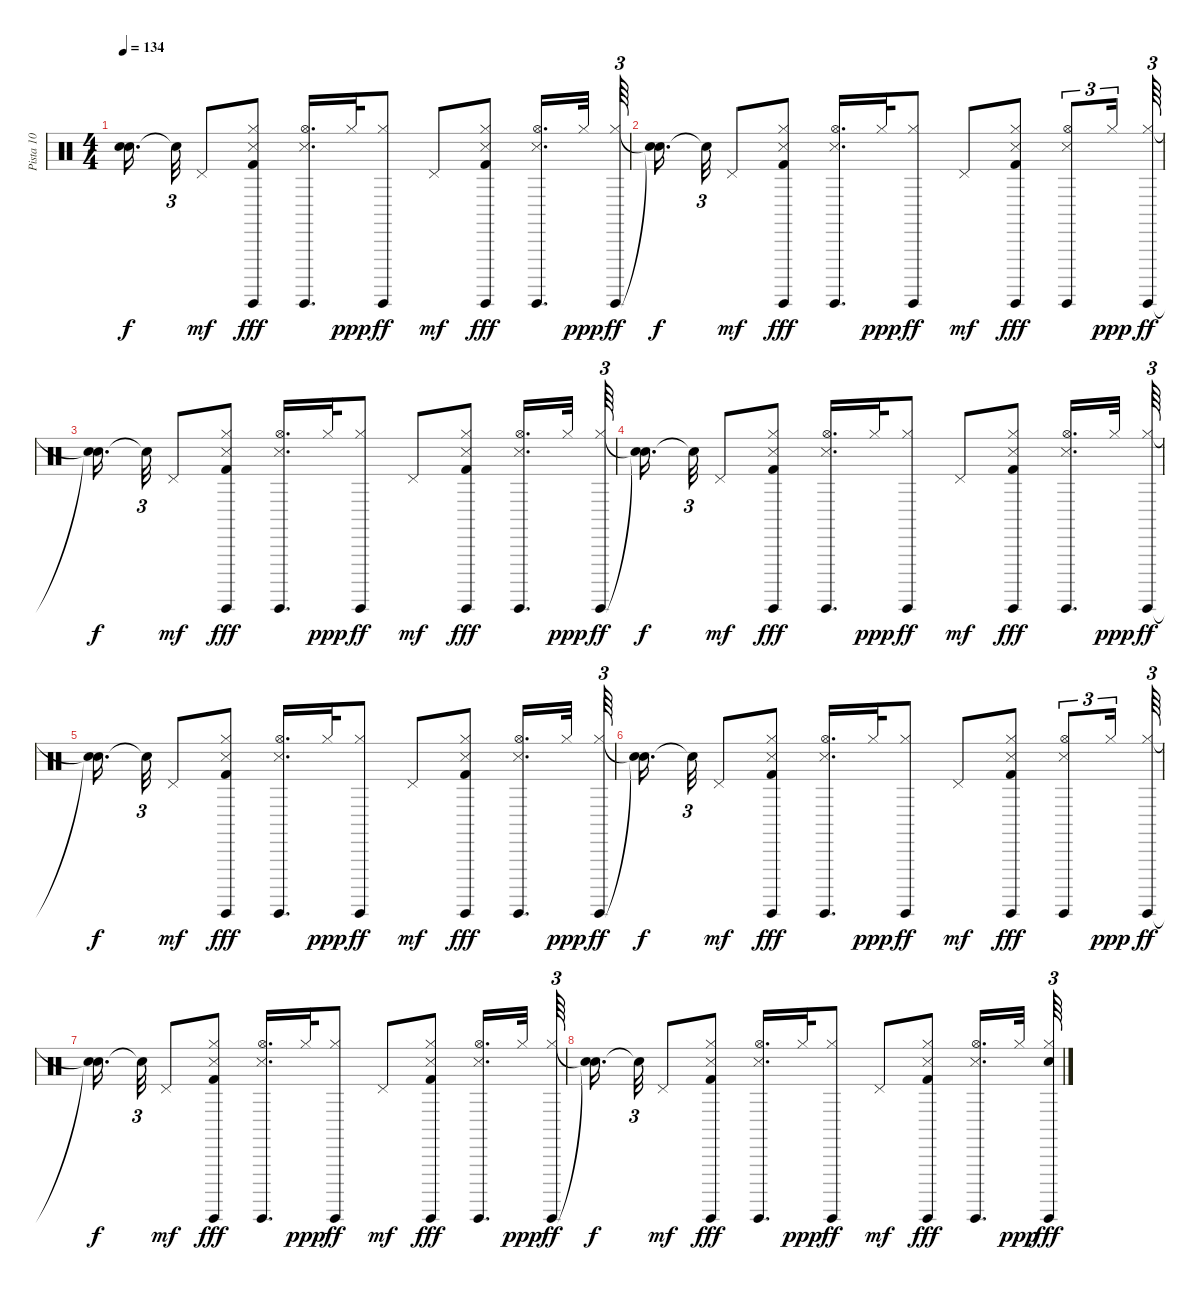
\track ("Pista 10" "Pista 10") {instrument percussion}
\staff {score}
\articulation defaults
\ts (4 4)
\tempo 134
\clef neutral
\ks c
("Snare (hit)"{t} "Snare (hit)"{t}).16{d dy f beam splitsecondary} "Snare (hit)"{t}.32{tu (3 2)} "Pedal Hi-Hat (hit)".8{dy mf} ("Guiro (hit)" "Hi-Hat (closed)" "Kick (hit) 2" "Snare (side stick) 3").8{dy fff} ("Guiro (hit)" "Hi-Hat (open)" "Snare (side stick) 3").16{d} "Hi-Hat (closed)".32{dy ppp} ("Guiro (hit)" "Hi-Hat (closed)").8{dy ff} "Pedal Hi-Hat (hit)".8{dy mf} ("Guiro (hit)" "Hi-Hat (closed)" "Kick (hit) 2" "Snare (side stick) 3").8{dy fff} ("Guiro (hit)" "Hi-Hat (open)" "Snare (side stick) 3").16{d} "Hi-Hat (closed)".32{dy ppp} ("Guiro (hit)" "Hi-Hat (closed)").64{tu (3 2) dy ff} |
("Snare (hit)"{t} "Snare (hit)"{t}).16{d dy f beam splitsecondary} "Snare (hit)"{t}.32{tu (3 2)} "Pedal Hi-Hat (hit)".8{dy mf} ("Guiro (hit)" "Hi-Hat (closed)" "Kick (hit) 2" "Snare (side stick) 3").8{dy fff} ("Guiro (hit)" "Hi-Hat (open)" "Snare (side stick) 3").16{d} "Hi-Hat (closed)".32{dy ppp} ("Guiro (hit)" "Hi-Hat (closed)").8{dy ff} "Pedal Hi-Hat (hit)".8{dy mf} ("Guiro (hit)" "Hi-Hat (closed)" "Kick (hit) 2" "Snare (side stick) 3").8{dy fff} ("Guiro (hit)" "Hi-Hat (open)" "Snare (side stick) 3").8{tu (3 2)} "Hi-Hat (closed)".16{tu (3 2) dy ppp} ("Guiro (hit)" "Hi-Hat (closed)").64{tu (3 2) dy ff} |
("Snare (hit)"{t} "Snare (hit)"{t}).16{d dy f beam splitsecondary} "Snare (hit)"{t}.32{tu (3 2)} "Pedal Hi-Hat (hit)".8{dy mf} ("Guiro (hit)" "Hi-Hat (closed)" "Kick (hit) 2" "Snare (side stick) 3").8{dy fff} ("Guiro (hit)" "Hi-Hat (open)" "Snare (side stick) 3").16{d} "Hi-Hat (closed)".32{dy ppp} ("Guiro (hit)" "Hi-Hat (closed)").8{dy ff} "Pedal Hi-Hat (hit)".8{dy mf} ("Guiro (hit)" "Hi-Hat (closed)" "Kick (hit) 2" "Snare (side stick) 3").8{dy fff} ("Guiro (hit)" "Hi-Hat (open)" "Snare (side stick) 3").16{d} "Hi-Hat (closed)".32{dy ppp} ("Guiro (hit)" "Hi-Hat (closed)").64{tu (3 2) dy ff} |
("Snare (hit)"{t} "Snare (hit)"{t}).16{d dy f beam splitsecondary} "Snare (hit)"{t}.32{tu (3 2)} "Pedal Hi-Hat (hit)".8{dy mf} ("Guiro (hit)" "Hi-Hat (closed)" "Kick (hit) 2" "Snare (side stick) 3").8{dy fff} ("Guiro (hit)" "Hi-Hat (open)" "Snare (side stick) 3").16{d} "Hi-Hat (closed)".32{dy ppp} ("Guiro (hit)" "Hi-Hat (closed)").8{dy ff} "Pedal Hi-Hat (hit)".8{dy mf} ("Guiro (hit)" "Hi-Hat (closed)" "Kick (hit) 2" "Snare (side stick) 3").8{dy fff} ("Guiro (hit)" "Hi-Hat (open)" "Snare (side stick) 3").16{d} "Hi-Hat (closed)".32{dy ppp} ("Guiro (hit)" "Hi-Hat (closed)").64{tu (3 2) dy ff} |
("Snare (hit)"{t} "Snare (hit)"{t}).16{d dy f beam splitsecondary} "Snare (hit)"{t}.32{tu (3 2)} "Pedal Hi-Hat (hit)".8{dy mf} ("Guiro (hit)" "Hi-Hat (closed)" "Kick (hit) 2" "Snare (side stick) 3").8{dy fff} ("Guiro (hit)" "Hi-Hat (open)" "Snare (side stick) 3").16{d} "Hi-Hat (closed)".32{dy ppp} ("Guiro (hit)" "Hi-Hat (closed)").8{dy ff} "Pedal Hi-Hat (hit)".8{dy mf} ("Guiro (hit)" "Hi-Hat (closed)" "Kick (hit) 2" "Snare (side stick) 3").8{dy fff} ("Guiro (hit)" "Hi-Hat (open)" "Snare (side stick) 3").16{d} "Hi-Hat (closed)".32{dy ppp} ("Guiro (hit)" "Hi-Hat (closed)").64{tu (3 2) dy ff} |
("Snare (hit)"{t} "Snare (hit)"{t}).16{d dy f beam splitsecondary} "Snare (hit)"{t}.32{tu (3 2)} "Pedal Hi-Hat (hit)".8{dy mf} ("Guiro (hit)" "Hi-Hat (closed)" "Kick (hit) 2" "Snare (side stick) 3").8{dy fff} ("Guiro (hit)" "Hi-Hat (open)" "Snare (side stick) 3").16{d} "Hi-Hat (closed)".32{dy ppp} ("Guiro (hit)" "Hi-Hat (closed)").8{dy ff} "Pedal Hi-Hat (hit)".8{dy mf} ("Guiro (hit)" "Hi-Hat (closed)" "Kick (hit) 2" "Snare (side stick) 3").8{dy fff} ("Guiro (hit)" "Hi-Hat (open)" "Snare (side stick) 3").8{tu (3 2)} "Hi-Hat (closed)".16{tu (3 2) dy ppp} ("Guiro (hit)" "Hi-Hat (closed)").64{tu (3 2) dy ff} |
("Snare (hit)"{t} "Snare (hit)"{t}).16{d dy f beam splitsecondary} "Snare (hit)"{t}.32{tu (3 2)} "Pedal Hi-Hat (hit)".8{dy mf} ("Guiro (hit)" "Hi-Hat (closed)" "Kick (hit) 2" "Snare (side stick) 3").8{dy fff} ("Guiro (hit)" "Hi-Hat (open)" "Snare (side stick) 3").16{d} "Hi-Hat (closed)".32{dy ppp} ("Guiro (hit)" "Hi-Hat (closed)").8{dy ff} "Pedal Hi-Hat (hit)".8{dy mf} ("Guiro (hit)" "Hi-Hat (closed)" "Kick (hit) 2" "Snare (side stick) 3").8{dy fff} ("Guiro (hit)" "Hi-Hat (open)" "Snare (side stick) 3").16{d} "Hi-Hat (closed)".32{dy ppp} ("Guiro (hit)" "Hi-Hat (closed)").64{tu (3 2) dy ff} |
("Snare (hit)"{t} "Snare (hit)"{t}).16{d dy f beam splitsecondary} "Snare (hit)"{t}.32{tu (3 2)} "Pedal Hi-Hat (hit)".8{dy mf} ("Guiro (hit)" "Hi-Hat (closed)" "Kick (hit) 2" "Snare (side stick) 3").8{dy fff} ("Guiro (hit)" "Hi-Hat (open)" "Snare (side stick) 3").16{d} "Hi-Hat (closed)".32{dy ppp} ("Guiro (hit)" "Hi-Hat (closed)").8{dy ff} "Pedal Hi-Hat (hit)".8{dy mf} ("Guiro (hit)" "Hi-Hat (closed)" "Kick (hit) 2" "Snare (side stick) 3").8{dy fff} ("Guiro (hit)" "Hi-Hat (open)" "Snare (side stick) 3").16{d} "Hi-Hat (closed)".32{dy ppp} ("Guiro (hit)" "Hi-Hat (closed)" "Electric Snare (hit)").64{tu (3 2) dy fff}
